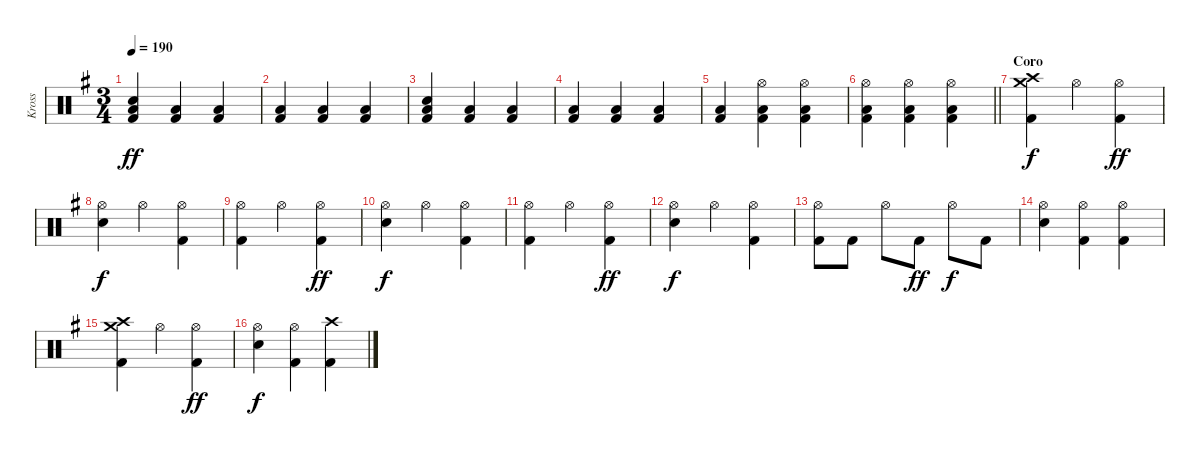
\track ("Kross" "Kross") {instrument percussion}
\staff {score}
\articulation defaults
\ts (3 4)
\tempo 190
\clef neutral
\ks g
("Snare (hit) 2" "Low Floor Tom (hit)" "Kick (hit) 2").4{dy ff} ("Low Floor Tom (hit)" "Kick (hit) 2").4 ("Low Floor Tom (hit)" "Kick (hit) 2").4 |
("Low Floor Tom (hit)" "Kick (hit) 2").4 ("Low Floor Tom (hit)" "Kick (hit) 2").4 ("Low Floor Tom (hit)" "Kick (hit) 2").4 |
("Snare (hit) 2" "Low Floor Tom (hit)" "Kick (hit) 2").4 ("Low Floor Tom (hit)" "Kick (hit) 2").4 ("Low Floor Tom (hit)" "Kick (hit) 2").4 |
("Low Floor Tom (hit)" "Kick (hit) 2").4 ("Low Floor Tom (hit)" "Kick (hit) 2").4 ("Low Floor Tom (hit)" "Kick (hit) 2").4 |
("Low Floor Tom (hit)" "Kick (hit) 2").4 ("Hi-Hat (open)" "Low Floor Tom (hit)" "Kick (hit) 2").4 ("Hi-Hat (open)" "Low Floor Tom (hit)" "Kick (hit) 2").4 |
\barLineRight lightlight
("Hi-Hat (open)" "Low Floor Tom (hit)" "Kick (hit) 2").4 ("Hi-Hat (open)" "Low Floor Tom (hit)" "Kick (hit) 2").4 ("Hi-Hat (open)" "Low Floor Tom (hit)" "Kick (hit) 2").4 |
\section ("" "Coro")
("Crash high (hit)" "Crash medium (hit)" "Kick (hit) 2").4{dy f} "Hi-Hat (open)".4 ("Hi-Hat (open)" "Kick (hit) 2").4{dy ff} |
("Hi-Hat (open)" "Snare (hit) 2").4{dy f} "Hi-Hat (open)".4 ("Hi-Hat (open)" "Kick (hit) 2").4 |
("Hi-Hat (open)" "Kick (hit) 2").4 "Hi-Hat (open)".4 ("Hi-Hat (open)" "Kick (hit) 2").4{dy ff} |
("Hi-Hat (open)" "Snare (hit) 2").4{dy f} "Hi-Hat (open)".4 ("Hi-Hat (open)" "Kick (hit) 2").4 |
("Hi-Hat (open)" "Kick (hit) 2").4 "Hi-Hat (open)".4 ("Hi-Hat (open)" "Kick (hit) 2").4{dy ff} |
("Hi-Hat (open)" "Snare (hit) 2").4{dy f} "Hi-Hat (open)".4 ("Hi-Hat (open)" "Kick (hit) 2").4 |
("Hi-Hat (open)" "Kick (hit) 2").8 "Kick (hit) 2".8 "Hi-Hat (open)".8 "Kick (hit) 2".8{dy ff} "Hi-Hat (open)".8{dy f} "Kick (hit) 2".8 |
("Hi-Hat (open)" "Snare (hit) 2").4 ("Hi-Hat (open)" "Kick (hit) 2").4 ("Hi-Hat (open)" "Kick (hit) 2").4 |
("Crash high (hit)" "Crash medium (hit)" "Kick (hit) 2").4 "Hi-Hat (open)".4 ("Hi-Hat (open)" "Kick (hit) 2").4{dy ff} |
("Hi-Hat (open)" "Snare (hit) 2").4{dy f} ("Hi-Hat (open)" "Kick (hit) 2").4 ("Crash high (hit)" "Kick (hit) 2").4
